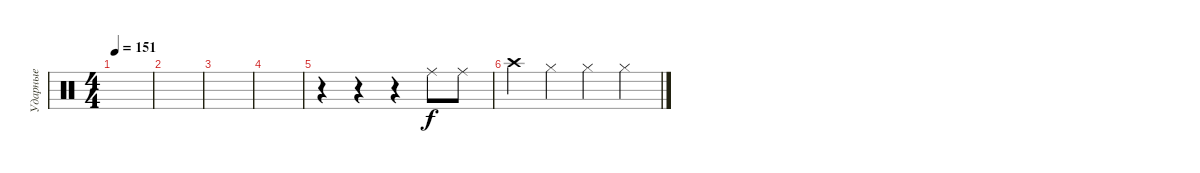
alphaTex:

\track ("Ударные" "Ударные") {instrument percussion}
\staff {score}
\articulation defaults
\ts (4 4)
\tempo 151
\clef neutral
\ks c
|
|
|
|
r.4 r.4 r.4 "Ride (middle)".8 "Ride (middle)".8 |
"Crash high (hit)".4 "Hi-Hat (closed)".4 "Hi-Hat (closed)".4 "Hi-Hat (closed)".4
